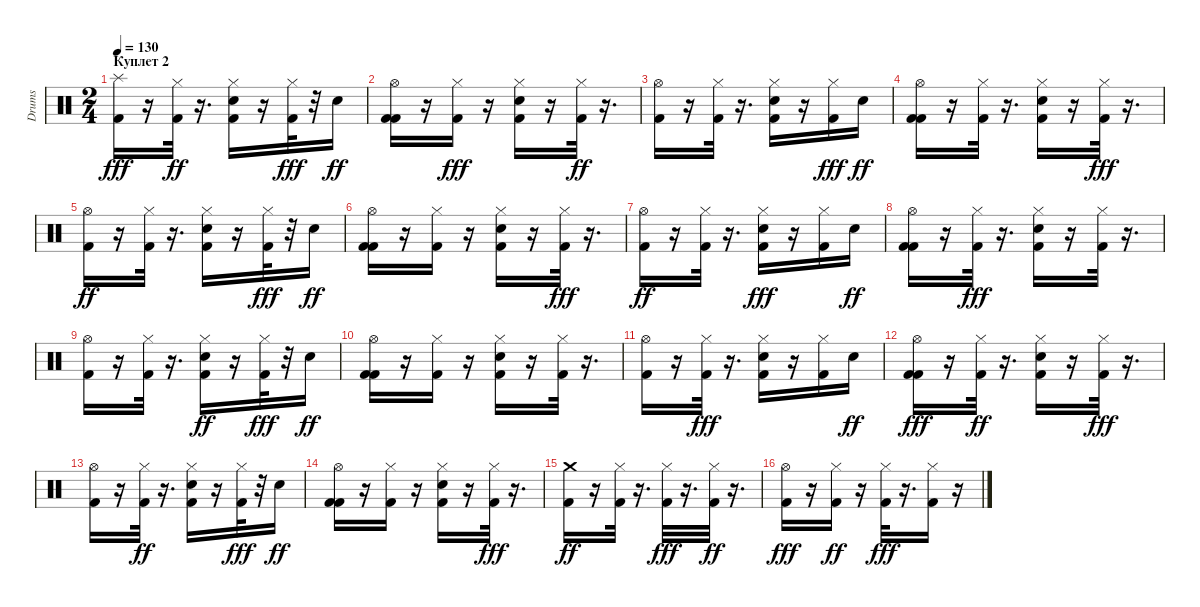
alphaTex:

\track ("Drums" "Drums") {solo instrument percussion}
\staff {score}
\articulation defaults
\ts (2 4)
\section ("" "Куплет 2")
\tempo 130
\clef neutral
\ks c
("Kick (hit) 2" "Splash (hit)").16{dy fff} r.16 ("Hi-Hat (closed)" "Kick (hit) 2").32{dy ff} r.16{d} ("Kick (hit) 2" "Hi-Hat (closed)" "Snare (hit) 2").16 r.16 ("Kick (hit) 2" "Hi-Hat (closed)").32{dy fff} r.32 "Snare (hit) 2".16{dy ff} |
("Hi-Hat (open)" "Kick (hit) 2" "Kick (hit) 2").16 r.16 ("Kick (hit) 2" "Hi-Hat (closed)").16{dy fff} r.16 ("Snare (hit) 2" "Kick (hit) 2" "Hi-Hat (closed)").16 r.16 ("Hi-Hat (closed)" "Kick (hit) 2").32{dy ff} r.16{d} |
("Hi-Hat (open)" "Kick (hit) 2").16 r.16 ("Hi-Hat (closed)" "Kick (hit) 2").32 r.16{d} ("Hi-Hat (closed)" "Snare (hit) 2" "Kick (hit) 2").16 r.16 ("Kick (hit) 2" "Hi-Hat (closed)").16{dy fff} "Snare (hit) 2".16{dy ff} |
("Hi-Hat (open)" "Kick (hit) 2" "Kick (hit) 2").16 r.16 ("Hi-Hat (closed)" "Kick (hit) 2").32 r.16{d} ("Hi-Hat (closed)" "Kick (hit) 2" "Snare (hit) 2").16 r.16 ("Kick (hit) 2" "Hi-Hat (closed)").32{dy fff} r.16{d} |
("Hi-Hat (open)" "Kick (hit) 2").16{dy ff} r.16 ("Hi-Hat (closed)" "Kick (hit) 2").32 r.16{d} ("Snare (hit) 2" "Hi-Hat (closed)" "Kick (hit) 2").16 r.16 ("Kick (hit) 2" "Hi-Hat (closed)").32{dy fff} r.32 "Snare (hit) 2".16{dy ff} |
("Kick (hit) 2" "Hi-Hat (open)" "Kick (hit) 2").16 r.16 ("Hi-Hat (closed)" "Kick (hit) 2").16 r.16 ("Hi-Hat (closed)" "Snare (hit) 2" "Kick (hit) 2").16 r.16 ("Kick (hit) 2" "Hi-Hat (closed)").32{dy fff} r.16{d} |
("Hi-Hat (open)" "Kick (hit) 2").16{dy ff} r.16 ("Hi-Hat (closed)" "Kick (hit) 2").32 r.16{d} ("Kick (hit) 2" "Snare (hit) 2" "Hi-Hat (closed)").16{dy fff} r.16 ("Kick (hit) 2" "Hi-Hat (closed)").16 "Snare (hit) 2".16{dy ff} |
("Hi-Hat (open)" "Kick (hit) 2" "Kick (hit) 2").16 r.16 ("Kick (hit) 2" "Hi-Hat (closed)").32{dy fff} r.16{d} ("Snare (hit) 2" "Kick (hit) 2" "Hi-Hat (closed)").16 r.16 ("Kick (hit) 2" "Hi-Hat (closed)").32 r.16{d} |
("Kick (hit) 2" "Hi-Hat (open)").16 r.16 ("Kick (hit) 2" "Hi-Hat (closed)").32 r.16{d} ("Hi-Hat (closed)" "Snare (hit) 2" "Kick (hit) 2").16{dy ff} r.16 ("Kick (hit) 2" "Hi-Hat (closed)").32{dy fff} r.32 "Snare (hit) 2".16{dy ff} |
("Hi-Hat (open)" "Kick (hit) 2" "Kick (hit) 2").16 r.16 ("Hi-Hat (closed)" "Kick (hit) 2").16 r.16 ("Snare (hit) 2" "Hi-Hat (closed)" "Kick (hit) 2").16 r.16 ("Hi-Hat (closed)" "Kick (hit) 2").32 r.16{d} |
("Hi-Hat (open)" "Kick (hit) 2").16 r.16 ("Kick (hit) 2" "Hi-Hat (closed)").32{dy fff} r.16{d} ("Snare (hit) 2" "Kick (hit) 2" "Hi-Hat (closed)").16 r.16 ("Kick (hit) 2" "Hi-Hat (closed)").16 "Snare (hit) 2".16{dy ff} |
("Kick (hit) 2" "Kick (hit) 2" "Hi-Hat (open)").16{dy fff} r.16 ("Hi-Hat (closed)" "Kick (hit) 2").32{dy ff} r.16{d} ("Hi-Hat (closed)" "Snare (hit) 2" "Kick (hit) 2").16 r.16 ("Kick (hit) 2" "Hi-Hat (closed)").32{dy fff} r.16{d} |
("Kick (hit) 2" "Hi-Hat (open)").16 r.16 ("Hi-Hat (closed)" "Kick (hit) 2").32{dy ff} r.16{d} ("Snare (hit) 2" "Hi-Hat (closed)" "Kick (hit) 2").16 r.16 ("Kick (hit) 2" "Hi-Hat (closed)").32{dy fff} r.32 "Snare (hit) 2".16{dy ff} |
("Kick (hit) 2" "Hi-Hat (open)" "Kick (hit) 2").16 r.16 ("Hi-Hat (closed)" "Kick (hit) 2").16 r.16 ("Snare (hit) 2" "Hi-Hat (closed)" "Kick (hit) 2").16 r.16 ("Kick (hit) 2" "Hi-Hat (closed)").32{dy fff} r.16{d} |
("Crash medium (hit)" "Kick (hit) 2").16{dy ff} r.16 ("Hi-Hat (closed)" "Kick (hit) 2").32 r.16{d} ("Kick (hit) 2" "Hi-Hat (closed)").32{dy fff} r.16{d} ("Hi-Hat (closed)" "Kick (hit) 2").32{dy ff} r.16{d} |
("Kick (hit) 2" "Hi-Hat (open)").16{dy fff} r.16 ("Hi-Hat (closed)" "Kick (hit) 2").16{dy ff} r.16 ("Kick (hit) 2" "Hi-Hat (closed)").32{dy fff} r.16{d} ("Kick (hit) 2" "Hi-Hat (closed)").16 r.16
